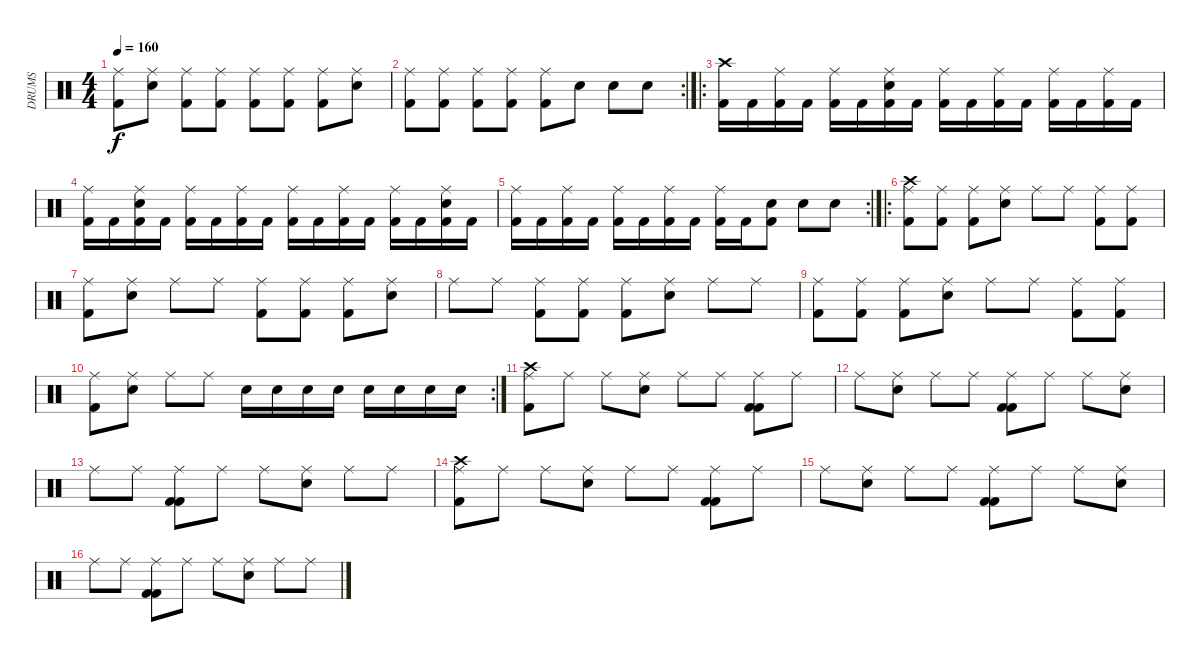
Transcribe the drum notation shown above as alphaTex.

\track ("DRUMS" "DRUMS") {instrument percussion}
\staff {score}
\articulation defaults
\ts (4 4)
\tempo 160
\clef neutral
\ks c
("Ride (middle)" "Kick (hit) 2").8{dy f} ("Ride (middle)" "Snare (hit) 2").8 ("Ride (middle)" "Kick (hit) 2").8 ("Ride (middle)" "Kick (hit) 2").8 ("Ride (middle)" "Kick (hit) 2").8 ("Ride (middle)" "Kick (hit) 2").8 ("Ride (middle)" "Kick (hit) 2").8 ("Ride (middle)" "Snare (hit) 2").8 |
\rc 2
("Ride (middle)" "Kick (hit) 2").8 ("Ride (middle)" "Kick (hit) 2").8 ("Ride (middle)" "Kick (hit) 2").8 ("Ride (middle)" "Kick (hit) 2").8 ("Ride (middle)" "Kick (hit) 2").8 "Snare (hit) 2".8 "Snare (hit) 2".8 "Snare (hit) 2".8 |
\ro
("Crash high (hit)" "Kick (hit) 2").16 "Kick (hit) 2".16 ("Ride (middle)" "Kick (hit) 2").16 "Kick (hit) 2".16 ("Ride (middle)" "Kick (hit) 2").16 "Kick (hit) 2".16 ("Ride (middle)" "Snare (hit) 2" "Kick (hit) 2").16 "Kick (hit) 2".16 ("Ride (middle)" "Kick (hit) 2").16 "Kick (hit) 2".16 ("Ride (middle)" "Kick (hit) 2").16 "Kick (hit) 2".16 ("Ride (middle)" "Kick (hit) 2").16 "Kick (hit) 2".16 ("Ride (middle)" "Kick (hit) 2").16 "Kick (hit) 2".16 |
("Ride (middle)" "Kick (hit) 2").16 "Kick (hit) 2".16 ("Ride (middle)" "Snare (hit) 2" "Kick (hit) 2").16 "Kick (hit) 2".16 ("Ride (middle)" "Kick (hit) 2").16 "Kick (hit) 2".16 ("Ride (middle)" "Kick (hit) 2").16 "Kick (hit) 2".16 ("Ride (middle)" "Kick (hit) 2").16 "Kick (hit) 2".16 ("Ride (middle)" "Kick (hit) 2").16 "Kick (hit) 2".16 ("Ride (middle)" "Kick (hit) 2").16 "Kick (hit) 2".16 ("Ride (middle)" "Snare (hit) 2" "Kick (hit) 2").16 "Kick (hit) 2".16 |
\rc 2
("Ride (middle)" "Kick (hit) 2").16 "Kick (hit) 2".16 ("Ride (middle)" "Kick (hit) 2").16 "Kick (hit) 2".16 ("Ride (middle)" "Kick (hit) 2").16 "Kick (hit) 2".16 ("Ride (middle)" "Kick (hit) 2").16 "Kick (hit) 2".16 ("Ride (middle)" "Kick (hit) 2").16 "Kick (hit) 2".16 ("Snare (hit) 2" "Kick (hit) 2").8 "Snare (hit) 2".8 "Snare (hit) 2".8 |
\ro
("Crash high (hit)" "Kick (hit) 2" "Ride (middle)").8 ("Kick (hit) 2" "Ride (middle)").8 ("Kick (hit) 2" "Ride (middle)").8 ("Snare (hit) 2" "Ride (middle)").8 "Ride (middle)".8 "Ride (middle)".8 ("Kick (hit) 2" "Ride (middle)").8 ("Kick (hit) 2" "Ride (middle)").8 |
("Kick (hit) 2" "Ride (middle)").8 ("Snare (hit) 2" "Ride (middle)").8 "Ride (middle)".8 "Ride (middle)".8 ("Kick (hit) 2" "Ride (middle)").8 ("Kick (hit) 2" "Ride (middle)").8 ("Kick (hit) 2" "Ride (middle)").8 ("Snare (hit) 2" "Ride (middle)").8 |
"Ride (middle)".8 "Ride (middle)".8 ("Kick (hit) 2" "Ride (middle)").8 ("Kick (hit) 2" "Ride (middle)").8 ("Kick (hit) 2" "Ride (middle)").8 ("Snare (hit) 2" "Ride (middle)").8 "Ride (middle)".8 "Ride (middle)".8 |
("Kick (hit) 2" "Ride (middle)").8 ("Kick (hit) 2" "Ride (middle)").8 ("Kick (hit) 2" "Ride (middle)").8 ("Snare (hit) 2" "Ride (middle)").8 "Ride (middle)".8 "Ride (middle)".8 ("Kick (hit) 2" "Ride (middle)").8 ("Kick (hit) 2" "Ride (middle)").8 |
\rc 2
("Kick (hit) 2" "Ride (middle)").8 ("Snare (hit) 2" "Ride (middle)").8 "Ride (middle)".8 "Ride (middle)".8 "Snare (hit) 2".16 "Snare (hit) 2".16 "Snare (hit) 2".16 "Snare (hit) 2".16 "Snare (hit) 2".16 "Snare (hit) 2".16 "Snare (hit) 2".16 "Snare (hit) 2".16 |
("Crash high (hit)" "Kick (hit) 2" "Ride (middle)").8 "Ride (middle)".8 "Ride (middle)".8 ("Snare (hit) 2" "Ride (middle)").8 "Ride (middle)".8 "Ride (middle)".8 ("Kick (hit) 2" "Kick (hit) 2" "Ride (middle)").8 "Ride (middle)".8 |
"Ride (middle)".8 ("Snare (hit) 2" "Ride (middle)").8 "Ride (middle)".8 "Ride (middle)".8 ("Kick (hit) 2" "Kick (hit) 2" "Ride (middle)").8 "Ride (middle)".8 "Ride (middle)".8 ("Snare (hit) 2" "Ride (middle)").8 |
"Ride (middle)".8 "Ride (middle)".8 ("Kick (hit) 2" "Kick (hit) 2" "Ride (middle)").8 "Ride (middle)".8 "Ride (middle)".8 ("Snare (hit) 2" "Ride (middle)").8 "Ride (middle)".8 "Ride (middle)".8 |
("Crash high (hit)" "Kick (hit) 2" "Ride (middle)").8 "Ride (middle)".8 "Ride (middle)".8 ("Snare (hit) 2" "Ride (middle)").8 "Ride (middle)".8 "Ride (middle)".8 ("Kick (hit) 2" "Kick (hit) 2" "Ride (middle)").8 "Ride (middle)".8 |
"Ride (middle)".8 ("Snare (hit) 2" "Ride (middle)").8 "Ride (middle)".8 "Ride (middle)".8 ("Kick (hit) 2" "Kick (hit) 2" "Ride (middle)").8 "Ride (middle)".8 "Ride (middle)".8 ("Snare (hit) 2" "Ride (middle)").8 |
"Ride (middle)".8 "Ride (middle)".8 ("Kick (hit) 2" "Kick (hit) 2" "Ride (middle)").8 "Ride (middle)".8 "Ride (middle)".8 ("Snare (hit) 2" "Ride (middle)").8 "Ride (middle)".8 "Ride (middle)".8
